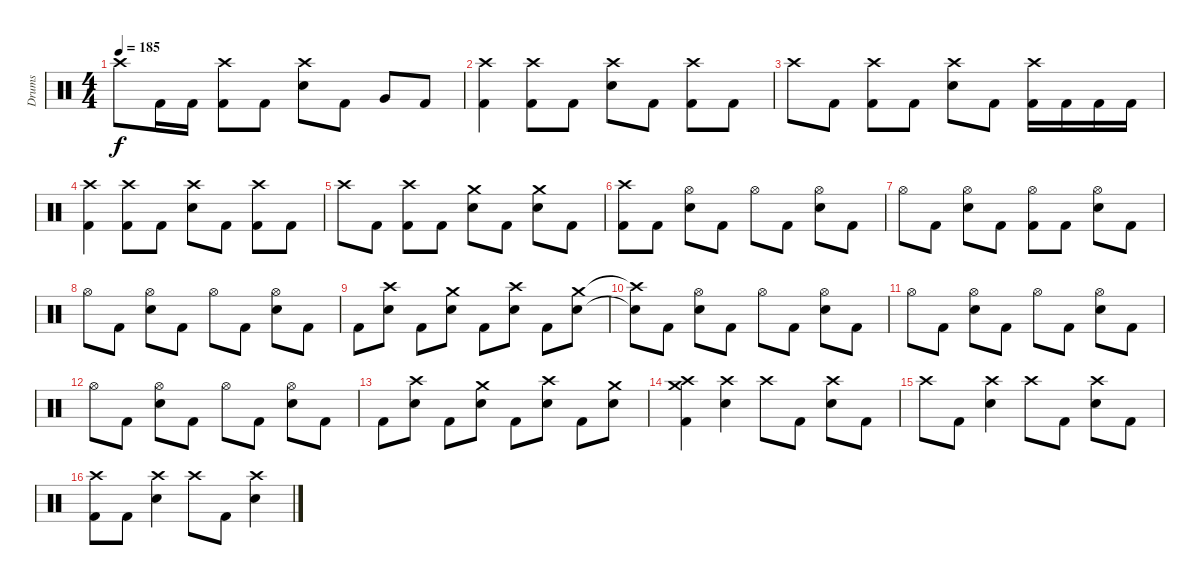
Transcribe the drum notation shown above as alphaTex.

\track ("Drums" "Drums") {instrument percussion}
\staff {score}
\articulation defaults
\ts (4 4)
\tempo 185
\clef neutral
\ks c "Crash high (hit)".8{dy f} "Kick (hit) 2".16 "Kick (hit) 2".16
("Crash high (hit)" "Kick (hit) 2").8 "Kick (hit) 2".8 ("Crash high (hit)" "Electric Snare (hit)").8 "Kick (hit) 2".8 "Very Low Tom (hit)".8 "Kick (hit) 2".8 |
("Crash high (hit)" "Kick (hit) 2").4 ("Crash high (hit)" "Kick (hit) 2").8 "Kick (hit) 2".8 ("Crash high (hit)" "Electric Snare (hit)").8 "Kick (hit) 2".8 ("Crash high (hit)" "Kick (hit) 2").8 "Kick (hit) 2".8 |
"Crash high (hit)".8 "Kick (hit) 2".8 ("Crash high (hit)" "Kick (hit) 2").8 "Kick (hit) 2".8 ("Crash high (hit)" "Electric Snare (hit)").8 "Kick (hit) 2".8 ("Crash high (hit)" "Kick (hit) 2").16 "Kick (hit) 2".16 "Kick (hit) 2".16 "Kick (hit) 2".16 |
("Crash high (hit)" "Kick (hit) 2").4 ("Crash high (hit)" "Kick (hit) 2").8 "Kick (hit) 2".8 ("Crash high (hit)" "Electric Snare (hit)").8 "Kick (hit) 2".8 ("Crash high (hit)" "Kick (hit) 2").8 "Kick (hit) 2".8 |
"Crash high (hit)".8 "Kick (hit) 2".8 ("Crash high (hit)" "Kick (hit) 2").8 "Kick (hit) 2".8 ("Crash medium (hit)" "Electric Snare (hit)").8 "Kick (hit) 2".8 ("Crash medium (hit)" "Electric Snare (hit)").8 "Kick (hit) 2".8 |
("Crash high (hit)" "Kick (hit) 2").8 "Kick (hit) 2".8 ("Hi-Hat (open)" "Electric Snare (hit)").8 "Kick (hit) 2".8 "Hi-Hat (open)".8 "Kick (hit) 2".8 ("Hi-Hat (open)" "Electric Snare (hit)").8 "Kick (hit) 2".8 |
"Hi-Hat (open)".8 "Kick (hit) 2".8 ("Hi-Hat (open)" "Electric Snare (hit)").8 "Kick (hit) 2".8 ("Hi-Hat (open)" "Kick (hit) 2").8 "Kick (hit) 2".8 ("Hi-Hat (open)" "Electric Snare (hit)").8 "Kick (hit) 2".8 |
"Hi-Hat (open)".8 "Kick (hit) 2".8 ("Hi-Hat (open)" "Electric Snare (hit)").8 "Kick (hit) 2".8 "Hi-Hat (open)".8 "Kick (hit) 2".8 ("Hi-Hat (open)" "Electric Snare (hit)").8 "Kick (hit) 2".8 |
"Kick (hit) 2".8 ("Crash high (hit)" "Electric Snare (hit)").8 "Kick (hit) 2".8 ("Crash medium (hit)" "Electric Snare (hit)").8 "Kick (hit) 2".8 ("Crash high (hit)" "Electric Snare (hit)").8 "Kick (hit) 2".8 ("Crash medium (hit)" "Electric Snare (hit)").8 |
("Crash high (hit)"{t} "Snare (hit)"{t}).8 "Kick (hit) 2".8 ("Hi-Hat (open)" "Electric Snare (hit)").8 "Kick (hit) 2".8 "Hi-Hat (open)".8 "Kick (hit) 2".8 ("Hi-Hat (open)" "Electric Snare (hit)").8 "Kick (hit) 2".8 |
"Hi-Hat (open)".8 "Kick (hit) 2".8 ("Hi-Hat (open)" "Electric Snare (hit)").8 "Kick (hit) 2".8 "Hi-Hat (open)".8 "Kick (hit) 2".8 ("Hi-Hat (open)" "Electric Snare (hit)").8 "Kick (hit) 2".8 |
"Hi-Hat (open)".8 "Kick (hit) 2".8 ("Hi-Hat (open)" "Electric Snare (hit)").8 "Kick (hit) 2".8 "Hi-Hat (open)".8 "Kick (hit) 2".8 ("Hi-Hat (open)" "Electric Snare (hit)").8 "Kick (hit) 2".8 |
"Kick (hit) 2".8 ("Crash high (hit)" "Electric Snare (hit)").8 "Kick (hit) 2".8 ("Crash medium (hit)" "Electric Snare (hit)").8 "Kick (hit) 2".8 ("Crash high (hit)" "Electric Snare (hit)").8 "Kick (hit) 2".8 ("Crash medium (hit)" "Electric Snare (hit)").8 |
("Crash high (hit)" "Crash medium (hit)" "Kick (hit) 2").4 ("Crash high (hit)" "Electric Snare (hit)").4 "Crash high (hit)".8 "Kick (hit) 2".8 ("Crash high (hit)" "Electric Snare (hit)").8 "Kick (hit) 2".8 |
"Crash high (hit)".8 "Kick (hit) 2".8 ("Crash high (hit)" "Electric Snare (hit)").4 "Crash high (hit)".8 "Kick (hit) 2".8 ("Crash high (hit)" "Electric Snare (hit)").8 "Kick (hit) 2".8 |
("Crash high (hit)" "Kick (hit) 2").8 "Kick (hit) 2".8 ("Crash high (hit)" "Electric Snare (hit)").4 "Crash high (hit)".8 "Kick (hit) 2".8 ("Crash high (hit)" "Electric Snare (hit)").4
